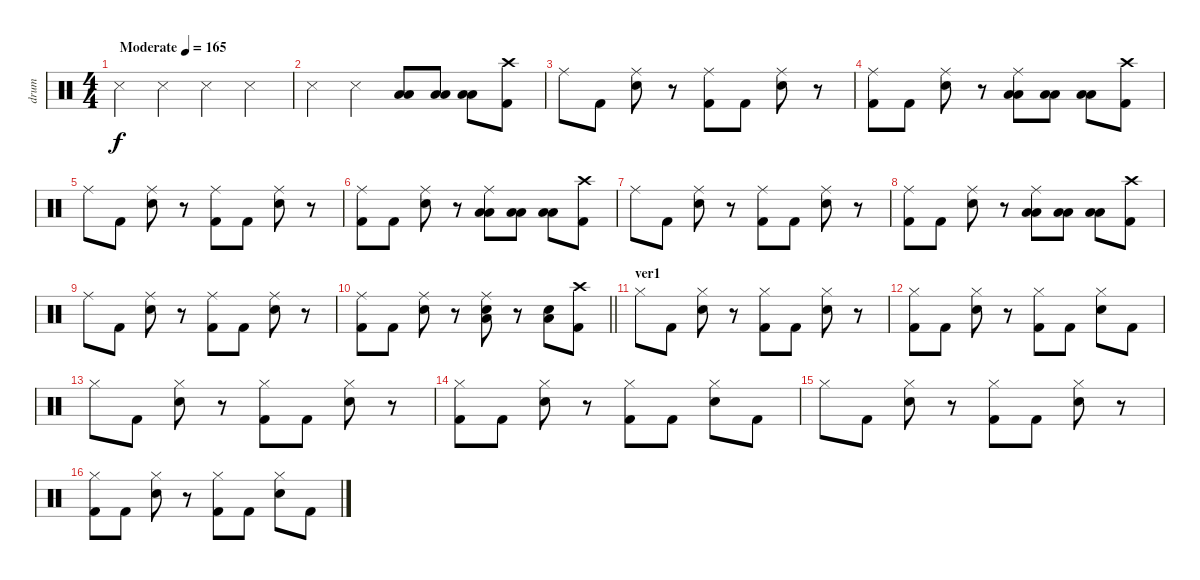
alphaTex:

\track ("drum" "drum") {instrument percussion}
\staff {score}
\articulation defaults
\ts (4 4)
\tempo (165 "Moderate")
\clef neutral
\ks c "Snare (side stick) 3".4{dy f} "Snare (side stick) 3".4 "Snare (side stick) 3".4 "Snare (side stick) 3".4
|
"Snare (side stick) 3".4 "Snare (side stick) 3".4 ("Low Tom (hit)" "Low Floor Tom (hit)").8 ("Low Tom (hit)" "Low Floor Tom (hit)").8 ("Low Tom (hit)" "Low Floor Tom (hit)").8 ("Crash high (hit)" "Kick (hit) 2").8 |
"Ride (middle)".8 "Kick (hit) 2".8 ("Ride (middle)" "Snare (hit) 2").8 r.8 ("Ride (middle)" "Kick (hit) 2").8 "Kick (hit) 2".8 ("Ride (middle)" "Snare (hit) 2").8 r.8 |
("Ride (middle)" "Kick (hit) 2").8 "Kick (hit) 2".8 ("Ride (middle)" "Snare (hit) 2").8 r.8 ("Ride (middle)" "Low Tom (hit)" "Low Floor Tom (hit)").8 ("Low Tom (hit)" "Low Floor Tom (hit)").8 ("Low Tom (hit)" "Low Floor Tom (hit)").8 ("Crash high (hit)" "Kick (hit) 2").8 |
"Ride (middle)".8 "Kick (hit) 2".8 ("Ride (middle)" "Snare (hit) 2").8 r.8 ("Ride (middle)" "Kick (hit) 2").8 "Kick (hit) 2".8 ("Ride (middle)" "Snare (hit) 2").8 r.8 |
("Ride (middle)" "Kick (hit) 2").8 "Kick (hit) 2".8 ("Ride (middle)" "Snare (hit) 2").8 r.8 ("Ride (middle)" "Low Tom (hit)" "Low Floor Tom (hit)").8 ("Low Tom (hit)" "Low Floor Tom (hit)").8 ("Low Tom (hit)" "Low Floor Tom (hit)").8 ("Crash high (hit)" "Kick (hit) 2").8 |
"Ride (middle)".8 "Kick (hit) 2".8 ("Ride (middle)" "Snare (hit) 2").8 r.8 ("Ride (middle)" "Kick (hit) 2").8 "Kick (hit) 2".8 ("Ride (middle)" "Snare (hit) 2").8 r.8 |
("Ride (middle)" "Kick (hit) 2").8 "Kick (hit) 2".8 ("Ride (middle)" "Snare (hit) 2").8 r.8 ("Ride (middle)" "Low Tom (hit)" "Low Floor Tom (hit)").8 ("Low Tom (hit)" "Low Floor Tom (hit)").8 ("Low Tom (hit)" "Low Floor Tom (hit)").8 ("Crash high (hit)" "Kick (hit) 2").8 |
"Ride (middle)".8 "Kick (hit) 2".8 ("Ride (middle)" "Snare (hit) 2").8 r.8 ("Ride (middle)" "Kick (hit) 2").8 "Kick (hit) 2".8 ("Ride (middle)" "Snare (hit) 2").8 r.8 |
\barLineRight lightlight
("Ride (middle)" "Kick (hit) 2").8 "Kick (hit) 2".8 ("Ride (middle)" "Snare (hit) 2").8 r.8 ("Ride (middle)" "Snare (hit) 2" "Low Floor Tom (hit)").8 r.8 ("Snare (hit) 2" "Low Floor Tom (hit)").8 ("Crash high (hit)" "Kick (hit) 2").8 |
\section ("" "ver1")
"Hi-Hat (closed)".8 "Kick (hit) 2".8 ("Hi-Hat (closed)" "Snare (hit) 2").8 r.8 ("Hi-Hat (closed)" "Kick (hit) 2").8 "Kick (hit) 2".8 ("Hi-Hat (closed)" "Snare (hit) 2").8 r.8 |
("Hi-Hat (closed)" "Kick (hit) 2").8 "Kick (hit) 2".8 ("Hi-Hat (closed)" "Snare (hit) 2").8 r.8 ("Hi-Hat (closed)" "Kick (hit) 2").8 "Kick (hit) 2".8 ("Hi-Hat (closed)" "Snare (hit) 2").8 "Kick (hit) 2".8 |
"Hi-Hat (closed)".8 "Kick (hit) 2".8 ("Hi-Hat (closed)" "Snare (hit) 2").8 r.8 ("Hi-Hat (closed)" "Kick (hit) 2").8 "Kick (hit) 2".8 ("Hi-Hat (closed)" "Snare (hit) 2").8 r.8 |
("Hi-Hat (closed)" "Kick (hit) 2").8 "Kick (hit) 2".8 ("Hi-Hat (closed)" "Snare (hit) 2").8 r.8 ("Hi-Hat (closed)" "Kick (hit) 2").8 "Kick (hit) 2".8 ("Hi-Hat (closed)" "Snare (hit) 2").8 "Kick (hit) 2".8 |
"Hi-Hat (closed)".8 "Kick (hit) 2".8 ("Hi-Hat (closed)" "Snare (hit) 2").8 r.8 ("Hi-Hat (closed)" "Kick (hit) 2").8 "Kick (hit) 2".8 ("Hi-Hat (closed)" "Snare (hit) 2").8 r.8 |
("Hi-Hat (closed)" "Kick (hit) 2").8 "Kick (hit) 2".8 ("Hi-Hat (closed)" "Snare (hit) 2").8 r.8 ("Hi-Hat (closed)" "Kick (hit) 2").8 "Kick (hit) 2".8 ("Hi-Hat (closed)" "Snare (hit) 2").8 "Kick (hit) 2".8
